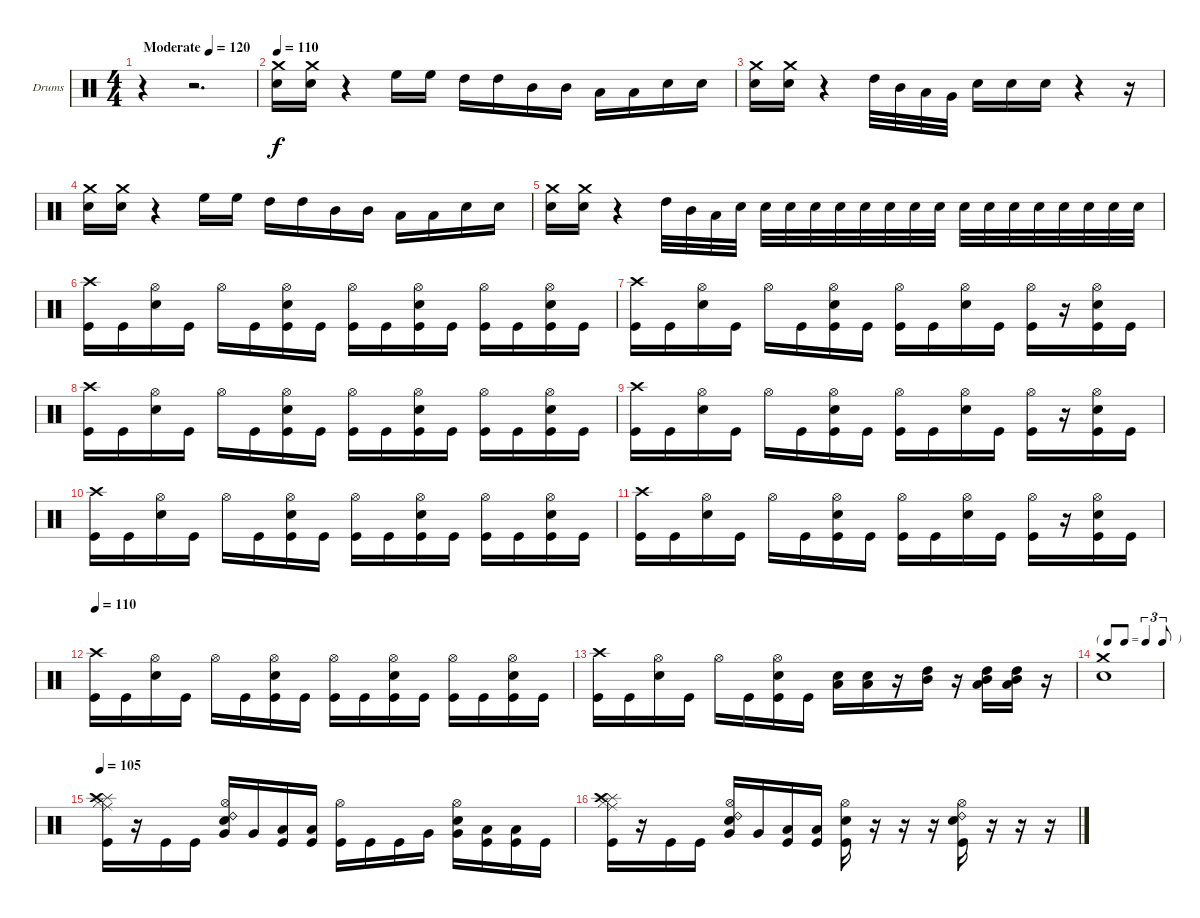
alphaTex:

\bracketExtendMode groupsimilarinstruments
\firstSystemTrackNameOrientation horizontal
\otherSystemsTrackNameOrientation horizontal
\track ("Drumkit" "Drums") {instrument percussion}
\staff {score}
\articulation defaults
\ts (4 4)
\beaming (8 2 2 2 2)
\tempo (120 "Moderate")
\clef neutral
\ks c
r.4{dy f} r.2{d} |
\tempo 110
("Crash medium (hit)" "Snare (hit) 2").16 ("Crash medium (hit)" "Snare (hit) 2").16 r.4 "High Floor Tom (hit)".16 "High Floor Tom (hit)".16 "High Tom (hit)".16 "High Tom (hit)".16 "Mid Tom (hit)".16 "Mid Tom (hit)".16 "Low Tom (hit)".16 "Low Tom (hit)".16 "Snare (hit) 2".16 "Snare (hit) 2".16 |
("Crash medium (hit)" "Snare (hit) 2").16 ("Crash medium (hit)" "Snare (hit) 2").16 r.4 "High Tom (hit)".32 "Mid Tom (hit)".32 "Low Tom (hit)".32 "Very Low Tom (hit)".32 "Snare (hit) 2".16 "Snare (hit) 2".16 "Snare (hit) 2".16 r.4 r.16 |
("Crash medium (hit)" "Snare (hit) 2").16 ("Crash medium (hit)" "Snare (hit) 2").16 r.4 "High Floor Tom (hit)".16 "High Floor Tom (hit)".16 "High Tom (hit)".16 "High Tom (hit)".16 "Mid Tom (hit)".16 "Mid Tom (hit)".16 "Low Tom (hit)".16 "Low Tom (hit)".16 "Snare (hit) 2".16 "Snare (hit) 2".16 |
("Crash medium (hit)" "Snare (hit) 2").16 ("Crash medium (hit)" "Snare (hit) 2").16 r.4 "High Tom (hit)".32 "Mid Tom (hit)".32 "Low Tom (hit)".32 "Snare (hit) 2".32 "Snare (hit) 2".32 "Snare (hit) 2".32 "Snare (hit) 2".32 "Snare (hit) 2".32 "Snare (hit) 2".32 "Snare (hit) 2".32 "Snare (hit) 2".32 "Snare (hit) 2".32 "Snare (hit) 2".32 "Snare (hit) 2".32 "Snare (hit) 2".32 "Snare (hit) 2".32 "Snare (hit) 2".32 "Snare (hit) 2".32 "Snare (hit) 2".32 "Snare (hit) 2".32 |
("Crash high (hit)" "Kick (hit)").16 "Kick (hit)".16 ("Hi-Hat (open)" "Snare (hit) 2").16 "Kick (hit)".16 "Hi-Hat (open)".16 "Kick (hit)".16 ("Hi-Hat (open)" "Snare (hit) 2" "Kick (hit)").16 "Kick (hit)".16 ("Hi-Hat (open)" "Kick (hit)").16 "Kick (hit)".16 ("Hi-Hat (open)" "Snare (hit) 2" "Kick (hit)").16 "Kick (hit)".16 ("Hi-Hat (open)" "Kick (hit)").16 "Kick (hit)".16 ("Hi-Hat (open)" "Snare (hit) 2" "Kick (hit)").16 "Kick (hit)".16 |
("Crash high (hit)" "Kick (hit)").16 "Kick (hit)".16 ("Hi-Hat (open)" "Snare (hit) 2").16 "Kick (hit)".16 "Hi-Hat (open)".16 "Kick (hit)".16 ("Hi-Hat (open)" "Snare (hit) 2" "Kick (hit)").16 "Kick (hit)".16 ("Hi-Hat (open)" "Kick (hit)").16 "Kick (hit)".16 ("Hi-Hat (open)" "Snare (hit) 2").16 "Kick (hit)".16 ("Hi-Hat (open)" "Kick (hit)").16 r.16 ("Hi-Hat (open)" "Snare (hit) 2" "Kick (hit)").16 "Kick (hit)".16 |
("Crash high (hit)" "Kick (hit)").16 "Kick (hit)".16 ("Hi-Hat (open)" "Snare (hit) 2").16 "Kick (hit)".16 "Hi-Hat (open)".16 "Kick (hit)".16 ("Hi-Hat (open)" "Snare (hit) 2" "Kick (hit)").16 "Kick (hit)".16 ("Hi-Hat (open)" "Kick (hit)").16 "Kick (hit)".16 ("Hi-Hat (open)" "Snare (hit) 2" "Kick (hit)").16 "Kick (hit)".16 ("Hi-Hat (open)" "Kick (hit)").16 "Kick (hit)".16 ("Hi-Hat (open)" "Snare (hit) 2" "Kick (hit)").16 "Kick (hit)".16 |
("Crash high (hit)" "Kick (hit)").16 "Kick (hit)".16 ("Hi-Hat (open)" "Snare (hit) 2").16 "Kick (hit)".16 "Hi-Hat (open)".16 "Kick (hit)".16 ("Hi-Hat (open)" "Snare (hit) 2" "Kick (hit)").16 "Kick (hit)".16 ("Hi-Hat (open)" "Kick (hit)").16 "Kick (hit)".16 ("Hi-Hat (open)" "Snare (hit) 2").16 "Kick (hit)".16 ("Hi-Hat (open)" "Kick (hit)").16 r.16 ("Hi-Hat (open)" "Snare (hit) 2" "Kick (hit)").16 "Kick (hit)".16 |
("Crash high (hit)" "Kick (hit)").16 "Kick (hit)".16 ("Hi-Hat (open)" "Snare (hit) 2").16 "Kick (hit)".16 "Hi-Hat (open)".16 "Kick (hit)".16 ("Hi-Hat (open)" "Snare (hit) 2" "Kick (hit)").16 "Kick (hit)".16 ("Hi-Hat (open)" "Kick (hit)").16 "Kick (hit)".16 ("Hi-Hat (open)" "Snare (hit) 2" "Kick (hit)").16 "Kick (hit)".16 ("Hi-Hat (open)" "Kick (hit)").16 "Kick (hit)".16 ("Hi-Hat (open)" "Snare (hit) 2" "Kick (hit)").16 "Kick (hit)".16 |
("Crash high (hit)" "Kick (hit)").16 "Kick (hit)".16 ("Hi-Hat (open)" "Snare (hit) 2").16 "Kick (hit)".16 "Hi-Hat (open)".16 "Kick (hit)".16 ("Hi-Hat (open)" "Snare (hit) 2" "Kick (hit)").16 "Kick (hit)".16 ("Hi-Hat (open)" "Kick (hit)").16 "Kick (hit)".16 ("Hi-Hat (open)" "Snare (hit) 2").16 "Kick (hit)".16 ("Hi-Hat (open)" "Kick (hit)").16 r.16 ("Hi-Hat (open)" "Snare (hit) 2" "Kick (hit)").16 "Kick (hit)".16 |
\tempo 110
("Crash high (hit)" "Kick (hit)").16 "Kick (hit)".16 ("Hi-Hat (open)" "Snare (hit) 2").16 "Kick (hit)".16 "Hi-Hat (open)".16 "Kick (hit)".16 ("Hi-Hat (open)" "Snare (hit) 2" "Kick (hit)").16 "Kick (hit)".16 ("Hi-Hat (open)" "Kick (hit)").16 "Kick (hit)".16 ("Hi-Hat (open)" "Snare (hit) 2" "Kick (hit)").16 "Kick (hit)".16 ("Hi-Hat (open)" "Kick (hit)").16 "Kick (hit)".16 ("Hi-Hat (open)" "Snare (hit) 2" "Kick (hit)").16 "Kick (hit)".16 |
("Crash high (hit)" "Kick (hit)").16 "Kick (hit)".16 ("Hi-Hat (open)" "Snare (hit) 2").16 "Kick (hit)".16 "Hi-Hat (open)".16 "Kick (hit)".16 ("Hi-Hat (open)" "Snare (hit) 2" "Kick (hit)").16 "Kick (hit)".16 ("Low Tom (hit)" "Snare (hit) 2").16 ("Low Tom (hit)" "Snare (hit) 2").16 r.16 ("Mid Tom (hit)" "High Tom (hit)").16 r.16 ("Mid Tom (hit)" "High Tom (hit)" "Low Tom (hit)").16 ("Mid Tom (hit)" "High Tom (hit)" "Low Tom (hit)").16 r.16 |
\tf triplet8th
("Crash medium (hit)" "Snare (hit) 2").1 |
\tempo 105
("Kick (hit)" "Ride (middle)" "Hi-Hat (closed)" "Splash (hit)" "Crash high (hit)").16 r.16 "Kick (hit)".16 "Kick (hit)".16 ("Very Low Tom (hit)" "Snare (hit) 2" "Ride (bell) 2" "Hi-Hat (open)").16 "Very Low Tom (hit)".16 ("Low Tom (hit)" "Kick (hit)").16 ("Low Tom (hit)" "Kick (hit)").16 ("Kick (hit)" "Hi-Hat (open)").16 "Kick (hit)".16 "Kick (hit)".16 "Very Low Tom (hit)".16 ("Very Low Tom (hit)" "Snare (hit) 2" "Hi-Hat (open)").16 ("Low Tom (hit)" "Kick (hit)").16 ("Low Tom (hit)" "Kick (hit)").16 "Kick (hit)".16 |
("Kick (hit)" "Ride (middle)" "Hi-Hat (closed)" "Splash (hit)" "Crash high (hit)").16 r.16 "Kick (hit)".16 "Kick (hit)".16 ("Very Low Tom (hit)" "Snare (hit) 2" "Ride (bell) 2" "Hi-Hat (open)").16 "Very Low Tom (hit)".16 ("Low Tom (hit)" "Kick (hit)").16 ("Low Tom (hit)" "Kick (hit)").16 ("Kick (hit)" "Hi-Hat (open)" "Snare (hit) 2").16 r.16 r.16 r.16 ("Kick (hit)" "Snare (hit) 2" "Ride (bell) 2" "Hi-Hat (open)").16 r.16 r.16 r.16
